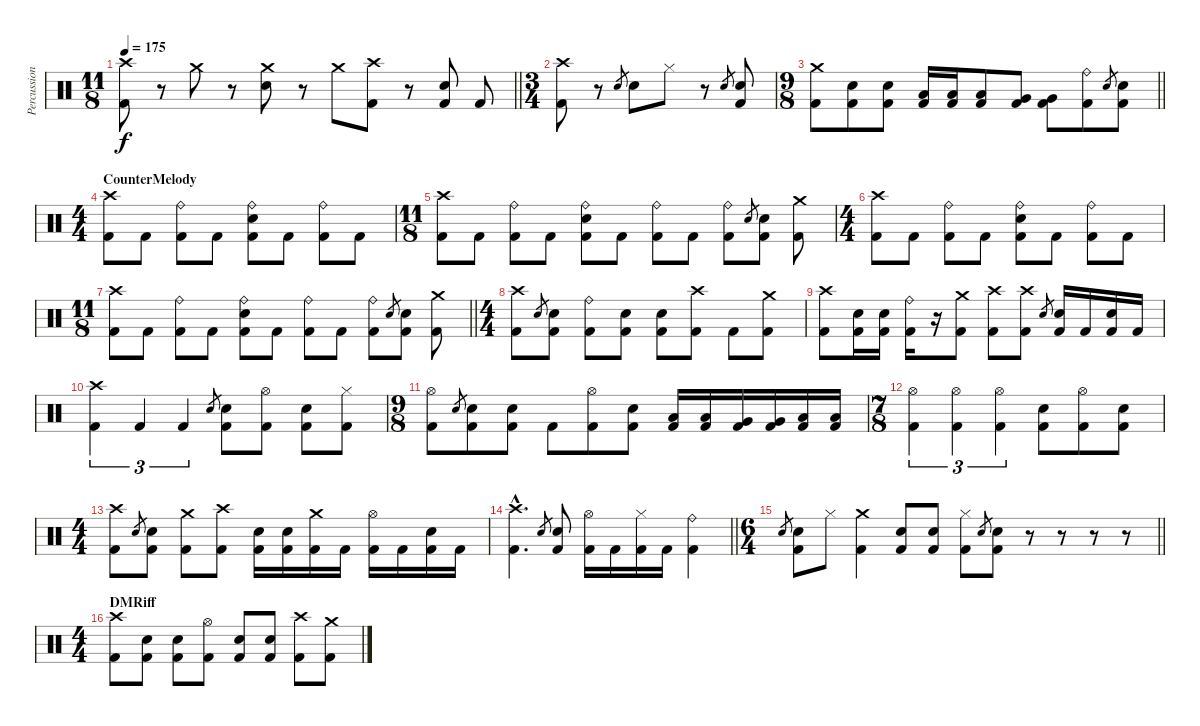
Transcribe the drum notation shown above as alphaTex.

\track ("Percussion" "Percussion") {instrument percussion}
\staff {score}
\articulation defaults
\ts (11 8)
\tempo 175
\clef neutral
\barLineRight lightlight
\ks c
("Crash high (hit)" "Kick (hit) 2").8{dy f} r.8 "Crash medium (hit)".8 r.8 ("Crash medium (hit)" "Electric Snare (hit)").8 r.8 "Crash medium (hit)".8 ("Crash high (hit)" "Kick (hit) 2").8 r.8 ("Electric Snare (hit)" "Kick (hit) 2").8 "Kick (hit) 2".8 |
\ts (3 4)
("Crash high (hit)" "Kick (hit) 2").8 r.8 "Electric Snare (hit)".8{gr} "Electric Snare (hit)".8 "Hi-Hat (closed)".8 r.8 "Electric Snare (hit)".8{gr} ("Electric Snare (hit)" "Kick (hit) 2").8 |
\ts (9 8)
\barLineRight lightlight
("Crash medium (hit)" "Kick (hit) 2").8 ("Electric Snare (hit)" "Kick (hit) 2").8 ("Electric Snare (hit)" "Kick (hit) 2").8 ("Low Tom (hit)" "Kick (hit) 2").16 ("Low Tom (hit)" "Kick (hit) 2").16 ("Low Tom (hit)" "Kick (hit) 2").8 ("Very Low Tom (hit)" "Kick (hit) 2").8 ("Very Low Tom (hit)" "Kick (hit) 2").8 ("Ride (bell)" "Kick (hit) 2").8 "Electric Snare (hit)".8{gr} ("Electric Snare (hit)" "Kick (hit) 2").8 |
\ts (4 4)
\section ("" "CounterMelody")
("Crash high (hit)" "Kick (hit) 2").8 "Kick (hit) 2".8 ("Ride (bell)" "Kick (hit) 2").8 "Kick (hit) 2".8 ("Ride (bell)" "Electric Snare (hit)" "Kick (hit) 2").8 "Kick (hit) 2".8 ("Ride (bell)" "Kick (hit) 2").8 "Kick (hit) 2".8 |
\ts (11 8)
("Crash high (hit)" "Kick (hit) 2").8 "Kick (hit) 2".8 ("Ride (bell)" "Kick (hit) 2").8 "Kick (hit) 2".8 ("Ride (bell)" "Electric Snare (hit)" "Kick (hit) 2").8 "Kick (hit) 2".8 ("Ride (bell)" "Kick (hit) 2").8 "Kick (hit) 2".8 ("Ride (bell)" "Kick (hit) 2").8 "Electric Snare (hit)".8{gr} ("Electric Snare (hit)" "Kick (hit) 2").8 ("Crash medium (hit)" "Kick (hit) 2").8 |
\ts (4 4)
("Crash high (hit)" "Kick (hit) 2").8 "Kick (hit) 2".8 ("Ride (bell)" "Kick (hit) 2").8 "Kick (hit) 2".8 ("Ride (bell)" "Electric Snare (hit)" "Kick (hit) 2").8 "Kick (hit) 2".8 ("Ride (bell)" "Kick (hit) 2").8 "Kick (hit) 2".8 |
\ts (11 8)
\barLineRight lightlight
("Crash high (hit)" "Kick (hit) 2").8 "Kick (hit) 2".8 ("Ride (bell)" "Kick (hit) 2").8 "Kick (hit) 2".8 ("Ride (bell)" "Electric Snare (hit)" "Kick (hit) 2").8 "Kick (hit) 2".8 ("Ride (bell)" "Kick (hit) 2").8 "Kick (hit) 2".8 ("Ride (bell)" "Kick (hit) 2").8 "Electric Snare (hit)".8{gr} ("Electric Snare (hit)" "Kick (hit) 2").8 ("Crash medium (hit)" "Kick (hit) 2").8 |
\ts (4 4)
("Crash high (hit)" "Kick (hit) 2").8 "Electric Snare (hit)".8{gr} ("Electric Snare (hit)" "Kick (hit) 2").8 ("Ride (bell)" "Kick (hit) 2").8 ("Electric Snare (hit)" "Kick (hit) 2").8 ("Electric Snare (hit)" "Kick (hit) 2").8 ("Crash high (hit)" "Kick (hit) 2").8 "Kick (hit) 2".8 ("Crash medium (hit)" "Kick (hit) 2").8 |
("Crash high (hit)" "Kick (hit) 2").8 ("Electric Snare (hit)" "Kick (hit) 2").16 ("Electric Snare (hit)" "Kick (hit) 2").16 ("Ride (bell)" "Kick (hit) 2").16 r.16 ("Crash medium (hit)" "Kick (hit) 2").8 ("Crash high (hit)" "Kick (hit) 2").8 ("Crash high (hit)" "Kick (hit) 2").8 "Electric Snare (hit)".8{gr} ("Electric Snare (hit)" "Kick (hit) 2").16 "Kick (hit) 2".16 ("Electric Snare (hit)" "Kick (hit) 2").16 "Kick (hit) 2".16 |
("Crash high (hit)" "Kick (hit) 2").4{tu (3 2)} "Kick (hit) 2".4{tu (3 2)} "Kick (hit) 2".4{tu (3 2)} "Electric Snare (hit)".8{gr} ("Electric Snare (hit)" "Kick (hit) 2").8 ("Hi-Hat (open)" "Kick (hit) 2").8 ("Electric Snare (hit)" "Kick (hit) 2").8 ("Hi-Hat (closed)" "Kick (hit) 2").8 |
\ts (9 8)
("Hi-Hat (open)" "Kick (hit) 2").8 "Electric Snare (hit)".8{gr} ("Electric Snare (hit)" "Kick (hit) 2").8 ("Electric Snare (hit)" "Kick (hit) 2").8 "Kick (hit) 2".8 ("Hi-Hat (open)" "Kick (hit) 2").8 ("Electric Snare (hit)" "Kick (hit) 2").8 ("Low Tom (hit)" "Kick (hit) 2").16 ("Low Tom (hit)" "Kick (hit) 2").16 ("Very Low Tom (hit)" "Kick (hit) 2").16 ("Very Low Tom (hit)" "Kick (hit) 2").16 ("Low Floor Tom (hit)" "Kick (hit) 2").16 ("Low Floor Tom (hit)" "Kick (hit) 2").16 |
\ts (7 8)
("Hi-Hat (open)" "Kick (hit) 2").4{tu (3 2)} ("Hi-Hat (open)" "Kick (hit) 2").4{tu (3 2)} ("Hi-Hat (open)" "Kick (hit) 2").4{tu (3 2)} ("Electric Snare (hit)" "Kick (hit) 2").8 ("Hi-Hat (open)" "Kick (hit) 2").8 ("Electric Snare (hit)" "Kick (hit) 2").8 |
\ts (4 4)
("Crash high (hit)" "Kick (hit) 2").8 "Electric Snare (hit)".8{gr} ("Electric Snare (hit)" "Kick (hit) 2").8 ("Crash medium (hit)" "Kick (hit) 2").8 ("Crash high (hit)" "Kick (hit) 2").8 ("Electric Snare (hit)" "Kick (hit) 2").16 ("Electric Snare (hit)" "Kick (hit) 2").16 ("Crash medium (hit)" "Kick (hit) 2").16 "Kick (hit) 2".16 ("Hi-Hat (open)" "Kick (hit) 2").16 "Kick (hit) 2".16 ("Electric Snare (hit)" "Kick (hit) 2").16 "Kick (hit) 2".16 |
\barLineRight lightlight
("Crash high (hit)"{hac} "Kick (hit) 2"{hac}).4{d} "Electric Snare (hit)".8{gr} ("Electric Snare (hit)" "Kick (hit) 2").8 ("Hi-Hat (open)" "Kick (hit) 2").16 "Kick (hit) 2".16 ("Hi-Hat (closed)" "Kick (hit) 2").16 "Kick (hit) 2".16 ("Ride (bell)" "Kick (hit) 2").4 |
\ts (6 4)
\barLineRight lightlight "Electric Snare (hit)".8{gr}
("Electric Snare (hit)" "Kick (hit) 2").8 "Hi-Hat (closed)".8 ("Crash medium (hit)" "Kick (hit) 2").4 ("Electric Snare (hit)" "Kick (hit) 2").8 ("Electric Snare (hit)" "Kick (hit) 2").8 ("Hi-Hat (closed)" "Kick (hit) 2").8 "Electric Snare (hit)".8{gr} ("Electric Snare (hit)" "Kick (hit) 2").8 r.8 r.8 r.8 r.8 |
\ts (4 4)
\section ("" "DMRiff")
("Crash high (hit)" "Kick (hit) 2").8 ("Electric Snare (hit)" "Kick (hit) 2").8 ("Electric Snare (hit)" "Kick (hit) 2").8 ("Hi-Hat (open)" "Kick (hit) 2").8 ("Electric Snare (hit)" "Kick (hit) 2").8 ("Electric Snare (hit)" "Kick (hit) 2").8 ("Crash high (hit)" "Kick (hit) 2").8 ("Crash medium (hit)" "Kick (hit) 2").8
